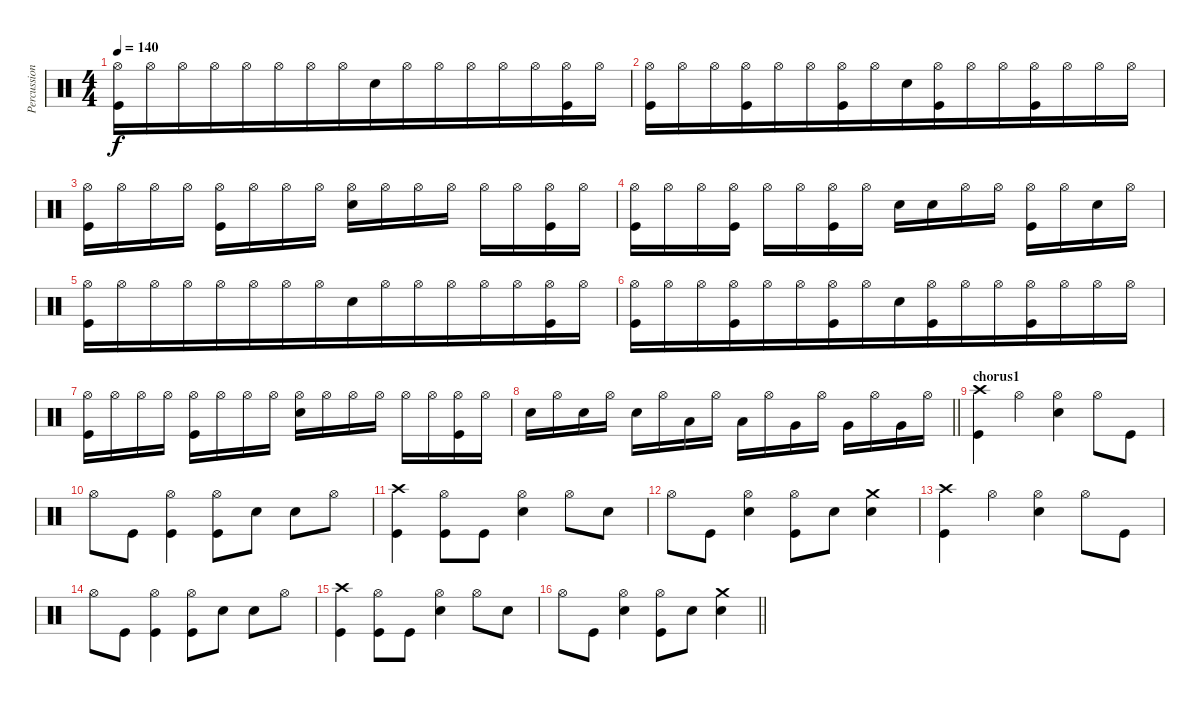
\track ("Percussion" "Percussion") {instrument percussion}
\staff {score}
\articulation defaults
\ts (4 4)
\tempo 140
\clef neutral
\ks c
("Kick (hit)" "Hi-Hat (open)").16{dy f beam merge} "Hi-Hat (open)".16{beam merge} "Hi-Hat (open)".16{beam merge} "Hi-Hat (open)".16{beam merge} "Hi-Hat (open)".16{beam merge} "Hi-Hat (open)".16{beam merge} "Hi-Hat (open)".16{beam merge} "Hi-Hat (open)".16{beam merge} "Snare (hit) 2".16{beam merge} "Hi-Hat (open)".16{beam merge} "Hi-Hat (open)".16{beam merge} "Hi-Hat (open)".16{beam merge} "Hi-Hat (open)".16{beam merge} "Hi-Hat (open)".16{beam merge} ("Hi-Hat (open)" "Kick (hit)").16{beam merge} "Hi-Hat (open)".16 |
("Hi-Hat (open)" "Kick (hit)").16{beam merge} "Hi-Hat (open)".16{beam merge} "Hi-Hat (open)".16{beam merge} ("Hi-Hat (open)" "Kick (hit)").16{beam merge} "Hi-Hat (open)".16{beam merge} "Hi-Hat (open)".16{beam merge} ("Hi-Hat (open)" "Kick (hit)").16{beam merge} "Hi-Hat (open)".16{beam merge} "Snare (hit) 2".16{beam merge} ("Hi-Hat (open)" "Kick (hit)").16{beam merge} "Hi-Hat (open)".16{beam merge} "Hi-Hat (open)".16{beam merge} ("Hi-Hat (open)" "Kick (hit)").16{beam merge} "Hi-Hat (open)".16{beam merge} "Hi-Hat (open)".16{beam merge} "Hi-Hat (open)".16 |
("Hi-Hat (open)" "Kick (hit)").16 "Hi-Hat (open)".16 "Hi-Hat (open)".16 "Hi-Hat (open)".16 ("Kick (hit)" "Hi-Hat (open)").16 "Hi-Hat (open)".16 "Hi-Hat (open)".16 "Hi-Hat (open)".16 ("Hi-Hat (open)" "Snare (hit) 2").16 "Hi-Hat (open)".16 "Hi-Hat (open)".16 "Hi-Hat (open)".16 "Hi-Hat (open)".16 "Hi-Hat (open)".16 ("Hi-Hat (open)" "Kick (hit)").16 "Hi-Hat (open)".16 |
("Hi-Hat (open)" "Kick (hit)").16 "Hi-Hat (open)".16 "Hi-Hat (open)".16 ("Hi-Hat (open)" "Kick (hit)").16 "Hi-Hat (open)".16 "Hi-Hat (open)".16 ("Hi-Hat (open)" "Kick (hit)").16 "Hi-Hat (open)".16 "Snare (hit) 2".16 "Snare (hit) 2".16 "Hi-Hat (open)".16 "Hi-Hat (open)".16 ("Hi-Hat (open)" "Kick (hit)").16 "Hi-Hat (open)".16 "Snare (hit) 2".16 "Hi-Hat (open)".16 |
("Kick (hit)" "Hi-Hat (open)").16{beam merge} "Hi-Hat (open)".16{beam merge} "Hi-Hat (open)".16{beam merge} "Hi-Hat (open)".16{beam merge} "Hi-Hat (open)".16{beam merge} "Hi-Hat (open)".16{beam merge} "Hi-Hat (open)".16{beam merge} "Hi-Hat (open)".16{beam merge} "Snare (hit) 2".16{beam merge} "Hi-Hat (open)".16{beam merge} "Hi-Hat (open)".16{beam merge} "Hi-Hat (open)".16{beam merge} "Hi-Hat (open)".16{beam merge} "Hi-Hat (open)".16{beam merge} ("Hi-Hat (open)" "Kick (hit)").16{beam merge} "Hi-Hat (open)".16 |
("Hi-Hat (open)" "Kick (hit)").16{beam merge} "Hi-Hat (open)".16{beam merge} "Hi-Hat (open)".16{beam merge} ("Hi-Hat (open)" "Kick (hit)").16{beam merge} "Hi-Hat (open)".16{beam merge} "Hi-Hat (open)".16{beam merge} ("Hi-Hat (open)" "Kick (hit)").16{beam merge} "Hi-Hat (open)".16{beam merge} "Snare (hit) 2".16{beam merge} ("Hi-Hat (open)" "Kick (hit)").16{beam merge} "Hi-Hat (open)".16{beam merge} "Hi-Hat (open)".16{beam merge} ("Hi-Hat (open)" "Kick (hit)").16{beam merge} "Hi-Hat (open)".16{beam merge} "Hi-Hat (open)".16{beam merge} "Hi-Hat (open)".16 |
("Hi-Hat (open)" "Kick (hit)").16 "Hi-Hat (open)".16 "Hi-Hat (open)".16 "Hi-Hat (open)".16 ("Kick (hit)" "Hi-Hat (open)").16 "Hi-Hat (open)".16 "Hi-Hat (open)".16 "Hi-Hat (open)".16 ("Hi-Hat (open)" "Snare (hit) 2").16 "Hi-Hat (open)".16 "Hi-Hat (open)".16 "Hi-Hat (open)".16 "Hi-Hat (open)".16 "Hi-Hat (open)".16 ("Hi-Hat (open)" "Kick (hit)").16 "Hi-Hat (open)".16 |
\barLineRight lightlight "Snare (hit) 2".16 "Hi-Hat (open)".16 "Snare (hit) 2".16 "Hi-Hat (open)".16 "Snare (hit) 2".16 "Hi-Hat (open)".16 "Low Tom (hit)".16 "Hi-Hat (open)".16 "Low Tom (hit)".16 "Hi-Hat (open)".16 "Very Low Tom (hit)".16 "Hi-Hat (open)".16 "Very Low Tom (hit)".16 "Hi-Hat (open)".16 "Very Low Tom (hit)".16 "Hi-Hat (open)".16
|
\section ("" "chorus1")
("Kick (hit)" "Crash high (hit)").4 "Hi-Hat (open)".4 ("Hi-Hat (open)" "Snare (hit) 2").4 "Hi-Hat (open)".8 "Kick (hit)".8 |
"Hi-Hat (open)".8 "Kick (hit)".8 ("Hi-Hat (open)" "Kick (hit)").4 ("Hi-Hat (open)" "Kick (hit)").8 "Snare (hit) 2".8 "Snare (hit) 2".8 "Hi-Hat (open)".8 |
("Crash high (hit)" "Kick (hit)").4 ("Hi-Hat (open)" "Kick (hit)").8 "Kick (hit)".8 ("Hi-Hat (open)" "Snare (hit) 2").4 "Hi-Hat (open)".8 "Snare (hit) 2".8 |
"Hi-Hat (open)".8 "Kick (hit)".8 ("Snare (hit) 2" "Hi-Hat (open)").4 ("Kick (hit)" "Hi-Hat (open)").8 "Snare (hit) 2".8 ("Snare (hit) 2" "Crash medium (hit)").4 |
("Crash high (hit)" "Kick (hit)").4 "Hi-Hat (open)".4 ("Hi-Hat (open)" "Snare (hit) 2").4 "Hi-Hat (open)".8 "Kick (hit)".8 |
"Hi-Hat (open)".8 "Kick (hit)".8 ("Hi-Hat (open)" "Kick (hit)").4 ("Hi-Hat (open)" "Kick (hit)").8 "Snare (hit) 2".8 "Snare (hit) 2".8 "Hi-Hat (open)".8 |
("Crash high (hit)" "Kick (hit)").4 ("Hi-Hat (open)" "Kick (hit)").8 "Kick (hit)".8 ("Hi-Hat (open)" "Snare (hit) 2").4 "Hi-Hat (open)".8 "Snare (hit) 2".8 |
\barLineRight lightlight "Hi-Hat (open)".8 "Kick (hit)".8
("Snare (hit) 2" "Hi-Hat (open)").4 ("Kick (hit)" "Hi-Hat (open)").8 "Snare (hit) 2".8 ("Snare (hit) 2" "Crash medium (hit)").4
